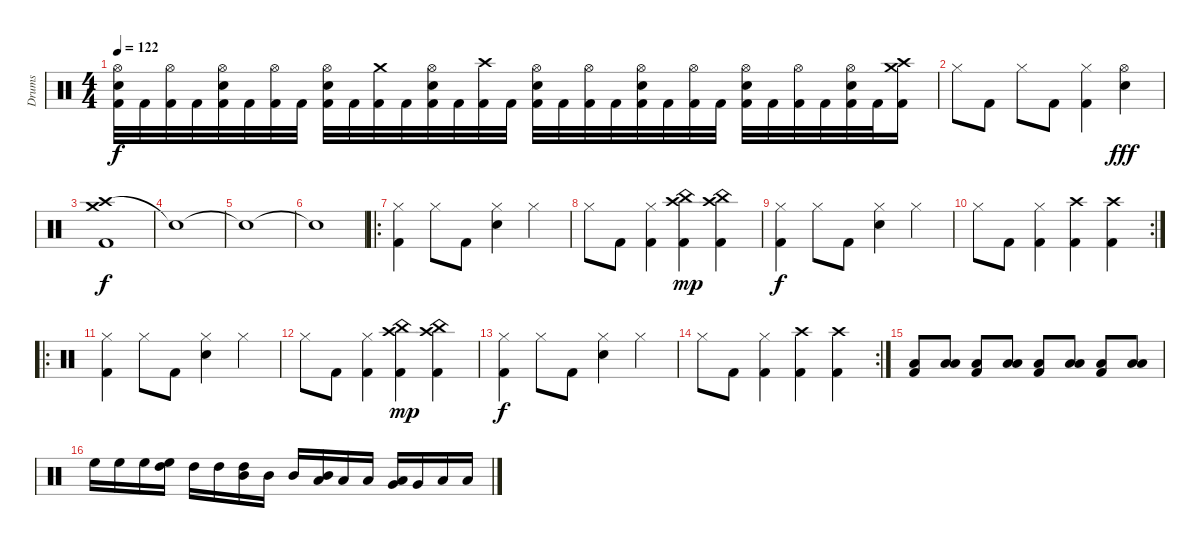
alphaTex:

\track ("Drums" "Drums") {instrument percussion}
\staff {score}
\articulation defaults
\ts (4 4)
\tempo 122
\clef neutral
\ks c
("Hi-Hat (open)" "Kick (hit) 2" "Snare (hit) 2").32{dy f} "Kick (hit) 2".32 ("Hi-Hat (open)" "Kick (hit) 2").32 "Kick (hit) 2".32 ("Hi-Hat (open)" "Kick (hit) 2" "Snare (hit) 2").32 "Kick (hit) 2".32 ("Hi-Hat (open)" "Kick (hit) 2").32 "Kick (hit) 2".32 ("Hi-Hat (open)" "Kick (hit) 2" "Snare (hit) 2").32 "Kick (hit) 2".32 ("Crash medium (hit)" "Kick (hit) 2").32 "Kick (hit) 2".32 ("Hi-Hat (open)" "Kick (hit) 2" "Snare (hit) 2").32 "Kick (hit) 2".32 ("Crash high (hit)" "Kick (hit) 2").32 "Kick (hit) 2".32 ("Hi-Hat (open)" "Kick (hit) 2" "Snare (hit) 2").32 "Kick (hit) 2".32 ("Hi-Hat (open)" "Kick (hit) 2").32 "Kick (hit) 2".32 ("Hi-Hat (open)" "Kick (hit) 2" "Snare (hit) 2").32 "Kick (hit) 2".32 ("Hi-Hat (open)" "Kick (hit) 2").32 "Kick (hit) 2".32 ("Hi-Hat (open)" "Kick (hit) 2" "Snare (hit) 2").32 "Kick (hit) 2".32 ("Hi-Hat (open)" "Kick (hit) 2").32 "Kick (hit) 2".32 ("Hi-Hat (open)" "Kick (hit) 2" "Snare (hit) 2").32 "Kick (hit) 2".32 ("Crash high (hit)" "Crash medium (hit)" "Kick (hit) 2").16 |
"Hi-Hat (closed)".8 "Kick (hit) 2".8 "Hi-Hat (closed)".8 "Kick (hit) 2".8 ("Hi-Hat (closed)" "Kick (hit) 2").4 ("Hi-Hat (open)" "Snare (hit) 2").4{dy fff} |
("Crash high (hit)" "Kick (hit) 2" "Crash medium (hit)").1{dy f} |
"Snare (hit)"{t}.1 |
"Snare (hit)"{t}.1 |
"Snare (hit)"{t}.1 |
\ro
("Hi-Hat (closed)" "Kick (hit) 2").4 "Hi-Hat (closed)".8 "Kick (hit) 2".8 ("Hi-Hat (closed)" "Snare (hit) 2").4 "Hi-Hat (closed)".4 |
"Hi-Hat (closed)".8 "Kick (hit) 2".8 ("Hi-Hat (closed)" "Kick (hit) 2").4 ("China (hit)" "Kick (hit) 2" "Crash high (hit)").4{dy mp} ("China (hit)" "Kick (hit) 2" "Crash high (hit)").4 |
("Hi-Hat (closed)" "Kick (hit) 2").4{dy f} "Hi-Hat (closed)".8 "Kick (hit) 2".8 ("Hi-Hat (closed)" "Snare (hit) 2").4 "Hi-Hat (closed)".4 |
\rc 2 "Hi-Hat (closed)".8 "Kick (hit) 2".8
("Hi-Hat (closed)" "Kick (hit) 2").4 ("Crash high (hit)" "Kick (hit) 2").4 ("Crash high (hit)" "Kick (hit) 2").4 |
\ro
("Hi-Hat (closed)" "Kick (hit) 2").4 "Hi-Hat (closed)".8 "Kick (hit) 2".8 ("Hi-Hat (closed)" "Snare (hit) 2").4 "Hi-Hat (closed)".4 |
"Hi-Hat (closed)".8 "Kick (hit) 2".8 ("Hi-Hat (closed)" "Kick (hit) 2").4 ("Kick (hit) 2" "China (hit)" "Crash high (hit)").4{dy mp} ("Kick (hit) 2" "China (hit)" "Crash high (hit)").4 |
("Hi-Hat (closed)" "Kick (hit) 2").4{dy f} "Hi-Hat (closed)".8 "Kick (hit) 2".8 ("Hi-Hat (closed)" "Snare (hit) 2").4 "Hi-Hat (closed)".4 |
\rc 2 "Hi-Hat (closed)".8 "Kick (hit) 2".8
("Hi-Hat (closed)" "Kick (hit) 2").4 ("Crash high (hit)" "Kick (hit) 2").4 ("Crash high (hit)" "Kick (hit) 2").4 |
("Low Floor Tom (hit)" "Kick (hit) 2").8 ("Low Floor Tom (hit)" "Low Floor Tom (hit)").8 ("Low Floor Tom (hit)" "Kick (hit) 2").8 ("Low Floor Tom (hit)" "Low Tom (hit)").8 ("Low Floor Tom (hit)" "Kick (hit) 2").8 ("Low Floor Tom (hit)" "Low Floor Tom (hit)").8 ("Low Floor Tom (hit)" "Kick (hit) 2").8 ("Low Tom (hit)" "Low Tom (hit)").8 |
"High Floor Tom (hit)".16 "High Floor Tom (hit)".16 "High Floor Tom (hit)".16 ("High Floor Tom (hit)" "High Tom (hit)").16 "High Tom (hit)".16 "High Tom (hit)".16 ("High Tom (hit)" "Mid Tom (hit)").16 "Mid Tom (hit)".16 "Mid Tom (hit)".16 ("Mid Tom (hit)" "Low Tom (hit)").16 "Low Tom (hit)".16 "Low Tom (hit)".16 ("Low Tom (hit)" "Very Low Tom (hit)").16 "Very Low Tom (hit)".16 "Low Floor Tom (hit)".16 "Low Floor Tom (hit)".16
